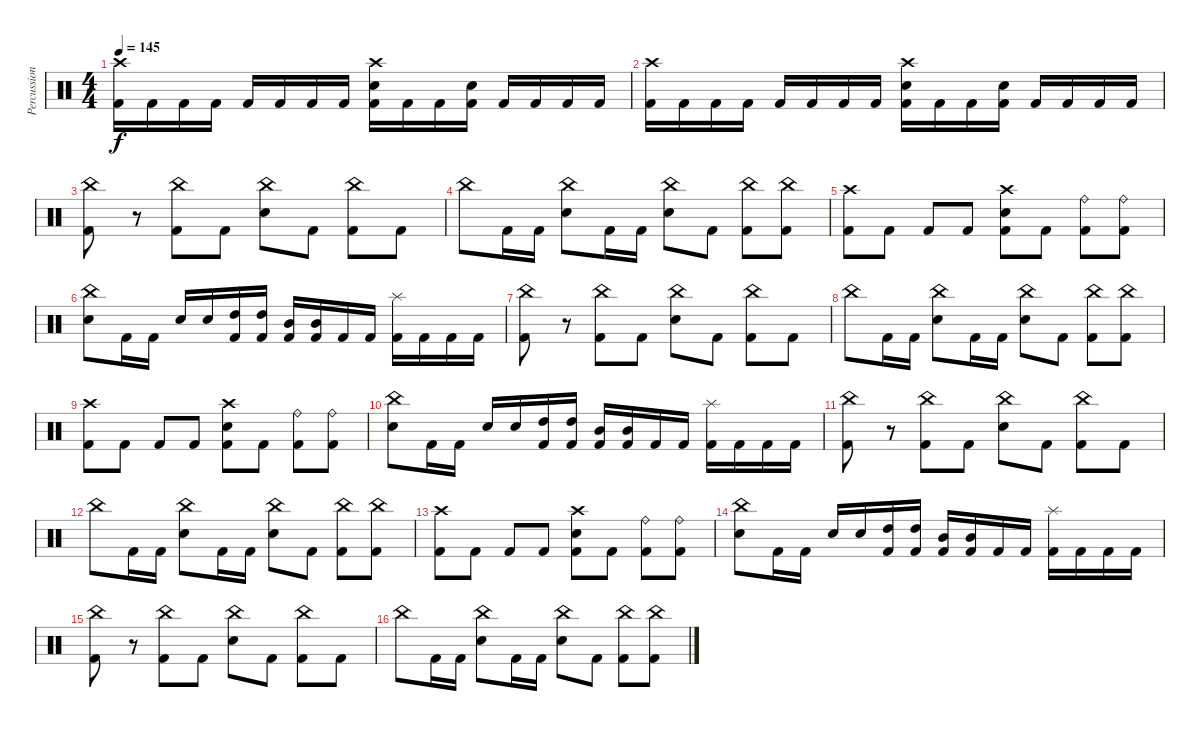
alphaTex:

\track ("Percussion" "Percussion") {instrument percussion}
\staff {score}
\articulation defaults
\ts (4 4)
\tempo 145
\clef neutral
\ks c
("Crash high (hit)" "Kick (hit) 2").16{dy f} "Kick (hit) 2".16 "Kick (hit) 2".16 "Kick (hit) 2".16 "Kick (hit) 2".16 "Kick (hit) 2".16 "Kick (hit) 2".16 "Kick (hit) 2".16 ("Crash high (hit)" "Snare (hit) 2" "Kick (hit) 2").16 "Kick (hit) 2".16 "Kick (hit) 2".16 ("Snare (hit) 2" "Kick (hit) 2").16 "Kick (hit) 2".16 "Kick (hit) 2".16 "Kick (hit) 2".16 "Kick (hit) 2".16 |
("Crash high (hit)" "Kick (hit) 2").16 "Kick (hit) 2".16 "Kick (hit) 2".16 "Kick (hit) 2".16 "Kick (hit) 2".16 "Kick (hit) 2".16 "Kick (hit) 2".16 "Kick (hit) 2".16 ("Crash high (hit)" "Snare (hit) 2" "Kick (hit) 2").16 "Kick (hit) 2".16 "Kick (hit) 2".16 ("Snare (hit) 2" "Kick (hit) 2").16 "Kick (hit) 2".16 "Kick (hit) 2".16 "Kick (hit) 2".16 "Kick (hit) 2".16 |
("China (hit)" "Kick (hit) 2").8 r.8 ("China (hit)" "Kick (hit) 2").8 "Kick (hit) 2".8 ("China (hit)" "Snare (hit) 2").8 "Kick (hit) 2".8 ("China (hit)" "Kick (hit) 2").8 "Kick (hit) 2".8 |
"China (hit)".8 "Kick (hit) 2".16 "Kick (hit) 2".16 ("China (hit)" "Snare (hit) 2").8 "Kick (hit) 2".16 "Kick (hit) 2".16 ("China (hit)" "Snare (hit) 2").8 "Kick (hit) 2".8 ("China (hit)" "Kick (hit) 2").8 ("China (hit)" "Kick (hit) 2").8 |
("Crash high (hit)" "Kick (hit) 2").8 "Kick (hit) 2".8 "Kick (hit) 2".8 "Kick (hit) 2".8 ("Crash high (hit)" "Snare (hit) 2" "Kick (hit) 2").8 "Kick (hit) 2".8 ("Ride (bell)" "Kick (hit) 2").8 ("Ride (bell)" "Kick (hit) 2").8 |
("China (hit)" "Snare (hit) 2").8 "Kick (hit) 2".16 "Kick (hit) 2".16 "Snare (hit) 2".16 "Snare (hit) 2".16 ("High Tom (hit)" "Kick (hit) 2").16 ("High Tom (hit)" "Kick (hit) 2").16 ("Mid Tom (hit)" "Kick (hit) 2").16 ("Mid Tom (hit)" "Kick (hit) 2").16 "Kick (hit) 2".16 "Kick (hit) 2".16 ("Splash (hit)" "Kick (hit) 2").16 "Kick (hit) 2".16 "Kick (hit) 2".16 "Kick (hit) 2".16 |
("China (hit)" "Kick (hit) 2").8 r.8 ("China (hit)" "Kick (hit) 2").8 "Kick (hit) 2".8 ("China (hit)" "Snare (hit) 2").8 "Kick (hit) 2".8 ("China (hit)" "Kick (hit) 2").8 "Kick (hit) 2".8 |
"China (hit)".8 "Kick (hit) 2".16 "Kick (hit) 2".16 ("China (hit)" "Snare (hit) 2").8 "Kick (hit) 2".16 "Kick (hit) 2".16 ("China (hit)" "Snare (hit) 2").8 "Kick (hit) 2".8 ("China (hit)" "Kick (hit) 2").8 ("China (hit)" "Kick (hit) 2").8 |
("Crash high (hit)" "Kick (hit) 2").8 "Kick (hit) 2".8 "Kick (hit) 2".8 "Kick (hit) 2".8 ("Crash high (hit)" "Snare (hit) 2" "Kick (hit) 2").8 "Kick (hit) 2".8 ("Ride (bell)" "Kick (hit) 2").8 ("Ride (bell)" "Kick (hit) 2").8 |
("China (hit)" "Snare (hit) 2").8 "Kick (hit) 2".16 "Kick (hit) 2".16 "Snare (hit) 2".16 "Snare (hit) 2".16 ("High Tom (hit)" "Kick (hit) 2").16 ("High Tom (hit)" "Kick (hit) 2").16 ("Mid Tom (hit)" "Kick (hit) 2").16 ("Mid Tom (hit)" "Kick (hit) 2").16 "Kick (hit) 2".16 "Kick (hit) 2".16 ("Splash (hit)" "Kick (hit) 2").16 "Kick (hit) 2".16 "Kick (hit) 2".16 "Kick (hit) 2".16 |
("China (hit)" "Kick (hit) 2").8 r.8 ("China (hit)" "Kick (hit) 2").8 "Kick (hit) 2".8 ("China (hit)" "Snare (hit) 2").8 "Kick (hit) 2".8 ("China (hit)" "Kick (hit) 2").8 "Kick (hit) 2".8 |
"China (hit)".8 "Kick (hit) 2".16 "Kick (hit) 2".16 ("China (hit)" "Snare (hit) 2").8 "Kick (hit) 2".16 "Kick (hit) 2".16 ("China (hit)" "Snare (hit) 2").8 "Kick (hit) 2".8 ("China (hit)" "Kick (hit) 2").8 ("China (hit)" "Kick (hit) 2").8 |
("Crash high (hit)" "Kick (hit) 2").8 "Kick (hit) 2".8 "Kick (hit) 2".8 "Kick (hit) 2".8 ("Crash high (hit)" "Snare (hit) 2" "Kick (hit) 2").8 "Kick (hit) 2".8 ("Ride (bell)" "Kick (hit) 2").8 ("Ride (bell)" "Kick (hit) 2").8 |
("China (hit)" "Snare (hit) 2").8 "Kick (hit) 2".16 "Kick (hit) 2".16 "Snare (hit) 2".16 "Snare (hit) 2".16 ("High Tom (hit)" "Kick (hit) 2").16 ("High Tom (hit)" "Kick (hit) 2").16 ("Mid Tom (hit)" "Kick (hit) 2").16 ("Mid Tom (hit)" "Kick (hit) 2").16 "Kick (hit) 2".16 "Kick (hit) 2".16 ("Splash (hit)" "Kick (hit) 2").16 "Kick (hit) 2".16 "Kick (hit) 2".16 "Kick (hit) 2".16 |
("China (hit)" "Kick (hit) 2").8 r.8 ("China (hit)" "Kick (hit) 2").8 "Kick (hit) 2".8 ("China (hit)" "Snare (hit) 2").8 "Kick (hit) 2".8 ("China (hit)" "Kick (hit) 2").8 "Kick (hit) 2".8 |
"China (hit)".8 "Kick (hit) 2".16 "Kick (hit) 2".16 ("China (hit)" "Snare (hit) 2").8 "Kick (hit) 2".16 "Kick (hit) 2".16 ("China (hit)" "Snare (hit) 2").8 "Kick (hit) 2".8 ("China (hit)" "Kick (hit) 2").8 ("China (hit)" "Kick (hit) 2").8
